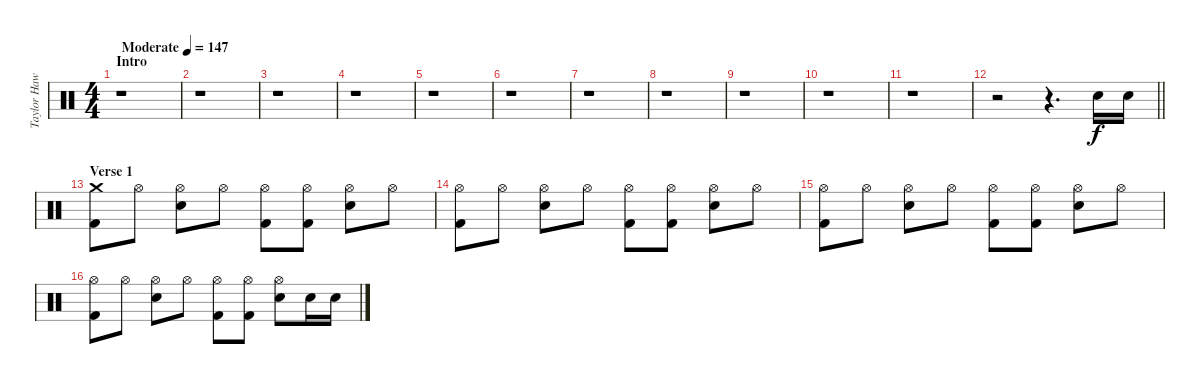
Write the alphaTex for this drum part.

\track ("Taylor Hawkins - Drums" "Taylor Haw") {instrument percussion}
\staff {score}
\articulation defaults
\ts (4 4)
\section ("" "Intro")
\tempo (147 "Moderate")
\clef neutral
\ks c
r.1{dy f} |
r.1 |
r.1 |
r.1 |
r.1 |
r.1 |
r.1 |
r.1 |
r.1 |
r.1 |
r.1 |
\barLineRight lightlight
r.2 r.4{d} "Snare (hit) 2".16 "Snare (hit) 2".16 |
\section ("" "Verse 1")
("Crash medium (hit)" "Kick (hit) 2").8 "Hi-Hat (open)".8 ("Hi-Hat (open)" "Snare (hit) 2").8 "Hi-Hat (open)".8 ("Hi-Hat (open)" "Kick (hit) 2").8 ("Hi-Hat (open)" "Kick (hit) 2").8 ("Hi-Hat (open)" "Snare (hit) 2").8 "Hi-Hat (open)".8 |
("Hi-Hat (open)" "Kick (hit) 2").8 "Hi-Hat (open)".8 ("Hi-Hat (open)" "Snare (hit) 2").8 "Hi-Hat (open)".8 ("Hi-Hat (open)" "Kick (hit) 2").8 ("Hi-Hat (open)" "Kick (hit) 2").8 ("Hi-Hat (open)" "Snare (hit) 2").8 "Hi-Hat (open)".8 |
("Hi-Hat (open)" "Kick (hit) 2").8 "Hi-Hat (open)".8 ("Hi-Hat (open)" "Snare (hit) 2").8 "Hi-Hat (open)".8 ("Hi-Hat (open)" "Kick (hit) 2").8 ("Hi-Hat (open)" "Kick (hit) 2").8 ("Hi-Hat (open)" "Snare (hit) 2").8 "Hi-Hat (open)".8 |
("Hi-Hat (open)" "Kick (hit) 2").8 "Hi-Hat (open)".8 ("Hi-Hat (open)" "Snare (hit) 2").8 "Hi-Hat (open)".8 ("Hi-Hat (open)" "Kick (hit) 2").8 ("Hi-Hat (open)" "Kick (hit) 2").8 ("Hi-Hat (open)" "Snare (hit) 2").8 "Snare (hit) 2".16 "Snare (hit) 2".16
